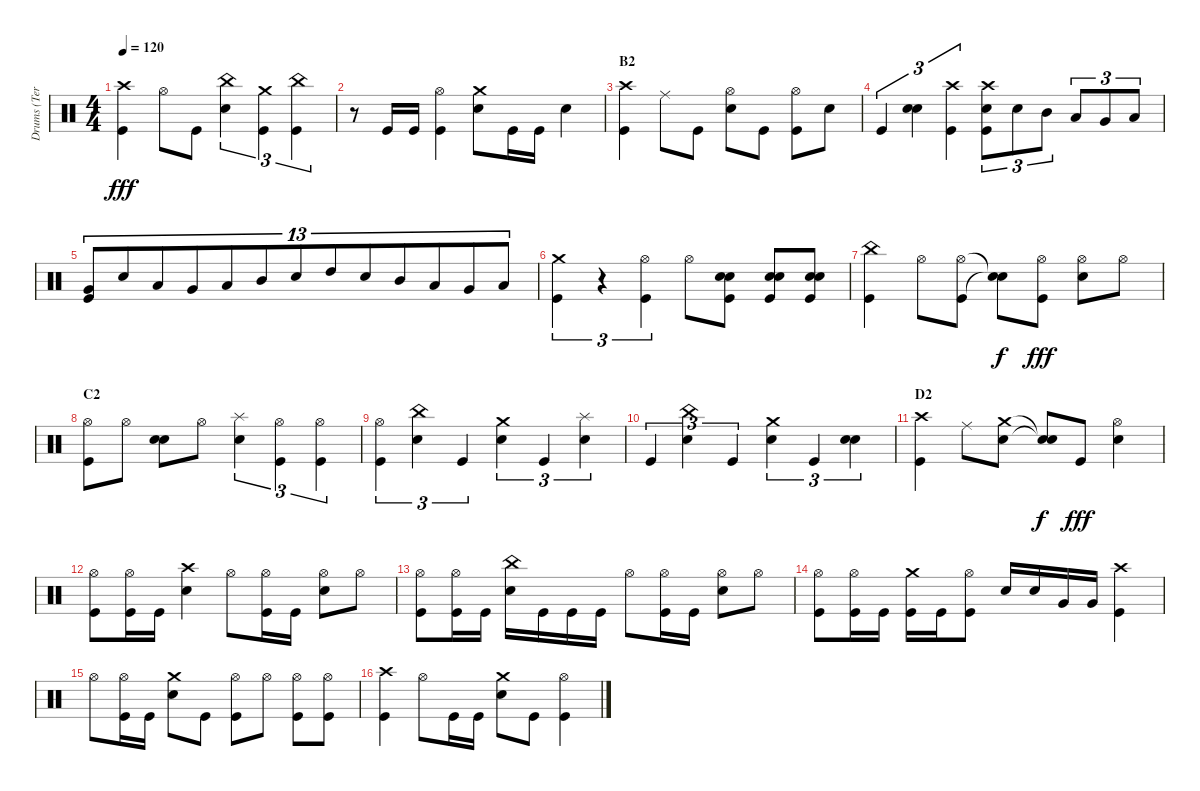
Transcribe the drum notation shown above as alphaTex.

\track ("Drums (Terry Bozzio)" "Drums (Ter") {instrument percussion}
\staff {score}
\articulation defaults
\ts (4 4)
\tempo 120
\clef neutral
\ks c
("Crash high (hit)" "Kick (hit)").4{dy fff} "Hi-Hat (open)".8 "Kick (hit)".8 ("China (hit)" "Snare (hit) 2").4{tu (3 2)} ("Crash medium (hit)" "Kick (hit)").4{tu (3 2)} ("China (hit)" "Kick (hit)").4{tu (3 2)} |
r.8 "Kick (hit)".16 "Kick (hit)".16 ("Hi-Hat (open)" "Kick (hit)").4 ("Crash medium (hit)" "Snare (hit) 2").8 "Kick (hit)".16 "Kick (hit)".16 "Snare (hit) 2".4 |
\section ("" "B2")
("Crash high (hit)" "Kick (hit)").4 "Ride (middle)".8 "Kick (hit)".8 ("Hi-Hat (open)" "Snare (hit) 2").8 "Kick (hit)".8 ("Hi-Hat (open)" "Kick (hit)").8 "Snare (hit) 2".8 |
"Kick (hit)".4{tu (3 2)} ("Snare (hit) 2" "Snare (hit) 2").4{tu (3 2)} ("Crash high (hit)" "Kick (hit)").4{tu (3 2)} ("Crash high (hit)" "Snare (hit) 2" "Kick (hit)").8{tu (3 2)} "Snare (hit) 2".8{tu (3 2)} "Mid Tom (hit)".8{tu (3 2)} "Low Tom (hit)".8{tu (3 2)} "Very Low Tom (hit)".8{tu (3 2)} "Low Floor Tom (hit)".8{tu (3 2)} |
("Very Low Tom (hit)" "Kick (hit)").8{tu (13 8)} "Snare (hit) 2".8{tu (13 8)} "Low Floor Tom (hit)".8{tu (13 8)} "Very Low Tom (hit)".8{tu (13 8)} "Low Tom (hit)".8{tu (13 8)} "Mid Tom (hit)".8{tu (13 8)} "Snare (hit) 2".8{tu (13 8)} "High Tom (hit)".8{tu (13 8)} "Snare (hit) 2".8{tu (13 8)} "Mid Tom (hit)".8{tu (13 8)} "Low Tom (hit)".8{tu (13 8)} "Very Low Tom (hit)".8{tu (13 8)} "Low Floor Tom (hit)".8{tu (13 8)} |
("Crash medium (hit)" "Kick (hit)").4{tu (3 2)} r.4{tu (3 2)} ("Hi-Hat (open)" "Kick (hit)").4{tu (3 2)} "Hi-Hat (open)".8 ("Snare (hit) 2" "Snare (hit) 2" "Kick (hit)").8 ("Snare (hit) 2" "Snare (hit) 2" "Kick (hit)").8 ("Snare (hit) 2" "Snare (hit) 2" "Kick (hit)").8 |
("China (hit)" "Kick (hit)").4 "Hi-Hat (open)".8 ("Hi-Hat (open)" "Kick (hit)").8 ("Snare (hit)"{t} "Snare (hit)"{t}).8{dy f} ("Hi-Hat (open)" "Kick (hit)").8{dy fff} ("Hi-Hat (open)" "Snare (hit) 2").8 "Hi-Hat (open)".8 |
\section ("" "C2")
("Hi-Hat (open)" "Kick (hit)").8 "Hi-Hat (open)".8 ("Snare (hit) 2" "Snare (hit) 2").8 "Hi-Hat (open)".8 ("Splash (hit)" "Snare (hit) 2").4{tu (3 2)} ("Hi-Hat (open)" "Kick (hit)").4{tu (3 2)} ("Hi-Hat (open)" "Kick (hit)").4{tu (3 2)} |
("Hi-Hat (open)" "Kick (hit)").4{tu (3 2)} ("China (hit)" "Snare (hit) 2").4{tu (3 2)} "Kick (hit)".4{tu (3 2)} ("Crash medium (hit)" "Snare (hit) 2").4{tu (3 2)} "Kick (hit)".4{tu (3 2)} ("Splash (hit)" "Snare (hit) 2").4{tu (3 2)} |
"Kick (hit)".4{tu (3 2)} ("China (hit)" "Snare (hit) 2").4{tu (3 2)} "Kick (hit)".4{tu (3 2)} ("Crash medium (hit)" "Snare (hit) 2").4{tu (3 2)} "Kick (hit)".4{tu (3 2)} ("Snare (hit) 2" "Snare (hit) 2").4{tu (3 2)} |
\section ("" "D2")
("Crash high (hit)" "Kick (hit)").4 "Ride (middle)".8 ("Crash medium (hit)" "Snare (hit) 2").8 ("Snare (hit)"{t} "Snare (hit)"{t}).8{dy f} "Kick (hit)".8{dy fff} ("Hi-Hat (open)" "Snare (hit) 2").4 |
("Hi-Hat (open)" "Kick (hit)").8 ("Hi-Hat (open)" "Kick (hit)").16 "Kick (hit)".16 ("Crash high (hit)" "Snare (hit) 2").4 "Hi-Hat (open)".8 ("Hi-Hat (open)" "Kick (hit)").16 "Kick (hit)".16 ("Hi-Hat (open)" "Snare (hit) 2").8 "Hi-Hat (open)".8 |
("Hi-Hat (open)" "Kick (hit)").8 ("Hi-Hat (open)" "Kick (hit)").16 "Kick (hit)".16 ("China (hit)" "Snare (hit) 2").16 "Kick (hit)".16 "Kick (hit)".16 "Kick (hit)".16 "Hi-Hat (open)".8 ("Hi-Hat (open)" "Kick (hit)").16 "Kick (hit)".16 ("Hi-Hat (open)" "Snare (hit) 2").8 "Hi-Hat (open)".8 |
("Hi-Hat (open)" "Kick (hit)").8 ("Hi-Hat (open)" "Kick (hit)").16 "Kick (hit)".16 ("Crash medium (hit)" "Kick (hit)").16 "Kick (hit)".16 ("Hi-Hat (open)" "Kick (hit)").8 "Snare (hit) 2".16 "Snare (hit) 2".16 "Very Low Tom (hit)".16 "Very Low Tom (hit)".16 ("Crash high (hit)" "Kick (hit)").4 |
"Hi-Hat (open)".8 ("Hi-Hat (open)" "Kick (hit)").16 "Kick (hit)".16 ("Crash medium (hit)" "Snare (hit) 2").8 "Kick (hit)".8 ("Hi-Hat (open)" "Kick (hit)").8 "Hi-Hat (open)".8 ("Hi-Hat (open)" "Kick (hit)").8 ("Hi-Hat (open)" "Kick (hit)").8 |
("Crash high (hit)" "Kick (hit)").4 "Hi-Hat (open)".8 "Kick (hit)".16 "Kick (hit)".16 ("Crash medium (hit)" "Snare (hit) 2").8 "Kick (hit)".8 ("Hi-Hat (open)" "Kick (hit)").4
